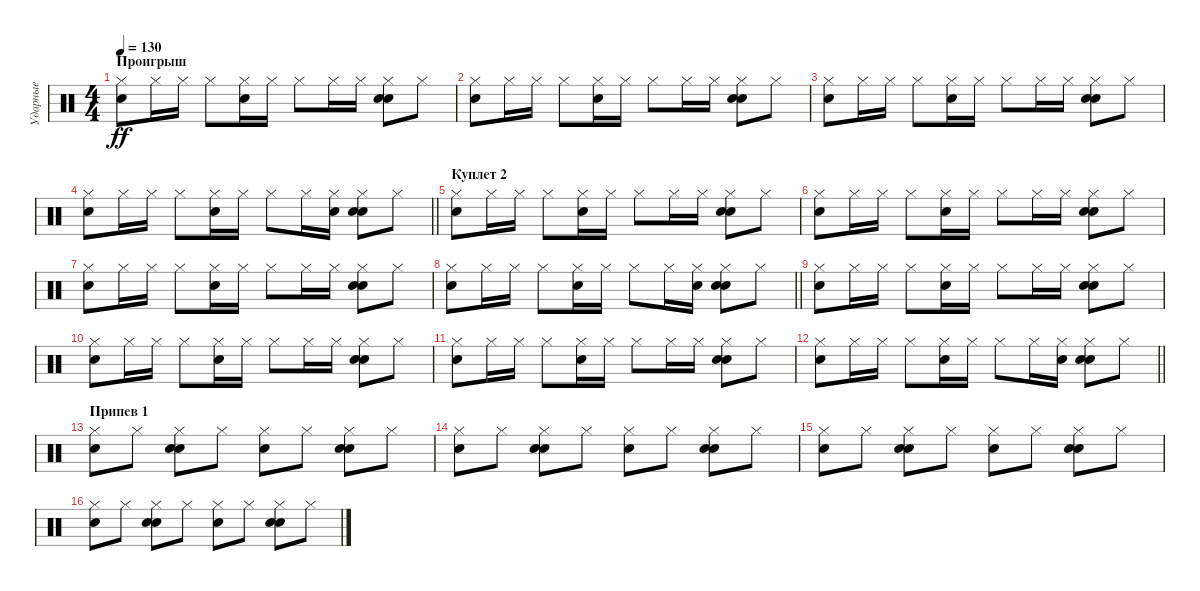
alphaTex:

\track ("Ударные" "Ударные") {instrument percussion}
\staff {score}
\articulation defaults
\ts (4 4)
\section ("" "Проигрыш")
\tempo 130
\clef neutral
\ks c
("Hi-Hat (closed)" "Snare (hit) 2").8{dy ff} "Hi-Hat (closed)".16 "Hi-Hat (closed)".16 "Hi-Hat (closed)".8 ("Hi-Hat (closed)" "Snare (hit) 2").16 "Hi-Hat (closed)".16 "Hi-Hat (closed)".8 "Hi-Hat (closed)".16 "Hi-Hat (closed)".16 ("Hi-Hat (closed)" "Snare (hit) 2" "Electric Snare (hit)").8 "Hi-Hat (closed)".8 |
("Hi-Hat (closed)" "Snare (hit) 2").8 "Hi-Hat (closed)".16 "Hi-Hat (closed)".16 "Hi-Hat (closed)".8 ("Hi-Hat (closed)" "Snare (hit) 2").16 "Hi-Hat (closed)".16 "Hi-Hat (closed)".8 "Hi-Hat (closed)".16 "Hi-Hat (closed)".16 ("Hi-Hat (closed)" "Snare (hit) 2" "Electric Snare (hit)").8 "Hi-Hat (closed)".8 |
("Hi-Hat (closed)" "Snare (hit) 2").8 "Hi-Hat (closed)".16 "Hi-Hat (closed)".16 "Hi-Hat (closed)".8 ("Hi-Hat (closed)" "Snare (hit) 2").16 "Hi-Hat (closed)".16 "Hi-Hat (closed)".8 "Hi-Hat (closed)".16 "Hi-Hat (closed)".16 ("Hi-Hat (closed)" "Snare (hit) 2" "Electric Snare (hit)").8 "Hi-Hat (closed)".8 |
\barLineRight lightlight
("Hi-Hat (closed)" "Snare (hit) 2").8 "Hi-Hat (closed)".16 "Hi-Hat (closed)".16 "Hi-Hat (closed)".8 ("Hi-Hat (closed)" "Snare (hit) 2").16 "Hi-Hat (closed)".16 "Hi-Hat (closed)".8 "Hi-Hat (closed)".16 ("Hi-Hat (closed)" "Electric Snare (hit)").16 ("Hi-Hat (closed)" "Snare (hit) 2" "Electric Snare (hit)").8 "Hi-Hat (closed)".8 |
\section ("" "Куплет 2")
("Hi-Hat (closed)" "Snare (hit) 2").8 "Hi-Hat (closed)".16 "Hi-Hat (closed)".16 "Hi-Hat (closed)".8 ("Hi-Hat (closed)" "Snare (hit) 2").16 "Hi-Hat (closed)".16 "Hi-Hat (closed)".8 "Hi-Hat (closed)".16 "Hi-Hat (closed)".16 ("Hi-Hat (closed)" "Snare (hit) 2" "Electric Snare (hit)").8 "Hi-Hat (closed)".8 |
("Hi-Hat (closed)" "Snare (hit) 2").8 "Hi-Hat (closed)".16 "Hi-Hat (closed)".16 "Hi-Hat (closed)".8 ("Hi-Hat (closed)" "Snare (hit) 2").16 "Hi-Hat (closed)".16 "Hi-Hat (closed)".8 "Hi-Hat (closed)".16 "Hi-Hat (closed)".16 ("Hi-Hat (closed)" "Snare (hit) 2" "Electric Snare (hit)").8 "Hi-Hat (closed)".8 |
("Hi-Hat (closed)" "Snare (hit) 2").8 "Hi-Hat (closed)".16 "Hi-Hat (closed)".16 "Hi-Hat (closed)".8 ("Hi-Hat (closed)" "Snare (hit) 2").16 "Hi-Hat (closed)".16 "Hi-Hat (closed)".8 "Hi-Hat (closed)".16 "Hi-Hat (closed)".16 ("Hi-Hat (closed)" "Snare (hit) 2" "Electric Snare (hit)").8 "Hi-Hat (closed)".8 |
\barLineRight lightlight
("Hi-Hat (closed)" "Snare (hit) 2").8 "Hi-Hat (closed)".16 "Hi-Hat (closed)".16 "Hi-Hat (closed)".8 ("Hi-Hat (closed)" "Snare (hit) 2").16 "Hi-Hat (closed)".16 "Hi-Hat (closed)".8 "Hi-Hat (closed)".16 ("Hi-Hat (closed)" "Electric Snare (hit)").16 ("Hi-Hat (closed)" "Snare (hit) 2" "Electric Snare (hit)").8 "Hi-Hat (closed)".8 |
("Hi-Hat (closed)" "Snare (hit) 2").8 "Hi-Hat (closed)".16 "Hi-Hat (closed)".16 "Hi-Hat (closed)".8 ("Hi-Hat (closed)" "Snare (hit) 2").16 "Hi-Hat (closed)".16 "Hi-Hat (closed)".8 "Hi-Hat (closed)".16 "Hi-Hat (closed)".16 ("Hi-Hat (closed)" "Snare (hit) 2" "Electric Snare (hit)").8 "Hi-Hat (closed)".8 |
("Hi-Hat (closed)" "Snare (hit) 2").8 "Hi-Hat (closed)".16 "Hi-Hat (closed)".16 "Hi-Hat (closed)".8 ("Hi-Hat (closed)" "Snare (hit) 2").16 "Hi-Hat (closed)".16 "Hi-Hat (closed)".8 "Hi-Hat (closed)".16 "Hi-Hat (closed)".16 ("Hi-Hat (closed)" "Snare (hit) 2" "Electric Snare (hit)").8 "Hi-Hat (closed)".8 |
("Hi-Hat (closed)" "Snare (hit) 2").8 "Hi-Hat (closed)".16 "Hi-Hat (closed)".16 "Hi-Hat (closed)".8 ("Hi-Hat (closed)" "Snare (hit) 2").16 "Hi-Hat (closed)".16 "Hi-Hat (closed)".8 "Hi-Hat (closed)".16 "Hi-Hat (closed)".16 ("Hi-Hat (closed)" "Snare (hit) 2" "Electric Snare (hit)").8 "Hi-Hat (closed)".8 |
\barLineRight lightlight
("Hi-Hat (closed)" "Snare (hit) 2").8 "Hi-Hat (closed)".16 "Hi-Hat (closed)".16 "Hi-Hat (closed)".8 ("Hi-Hat (closed)" "Snare (hit) 2").16 "Hi-Hat (closed)".16 "Hi-Hat (closed)".8 "Hi-Hat (closed)".16 ("Hi-Hat (closed)" "Electric Snare (hit)").16 ("Hi-Hat (closed)" "Snare (hit) 2" "Electric Snare (hit)").8 "Hi-Hat (closed)".8 |
\section ("" "Припев 1")
("Hi-Hat (closed)" "Snare (hit) 2").8 "Hi-Hat (closed)".8 ("Hi-Hat (closed)" "Snare (hit) 2" "Electric Snare (hit)").8 "Hi-Hat (closed)".8 ("Hi-Hat (closed)" "Snare (hit) 2").8 "Hi-Hat (closed)".8 ("Hi-Hat (closed)" "Snare (hit) 2" "Electric Snare (hit)").8 "Hi-Hat (closed)".8 |
("Hi-Hat (closed)" "Snare (hit) 2").8 "Hi-Hat (closed)".8 ("Hi-Hat (closed)" "Snare (hit) 2" "Electric Snare (hit)").8 "Hi-Hat (closed)".8 ("Hi-Hat (closed)" "Snare (hit) 2").8 "Hi-Hat (closed)".8 ("Hi-Hat (closed)" "Snare (hit) 2" "Electric Snare (hit)").8 "Hi-Hat (closed)".8 |
("Hi-Hat (closed)" "Snare (hit) 2").8 "Hi-Hat (closed)".8 ("Hi-Hat (closed)" "Snare (hit) 2" "Electric Snare (hit)").8 "Hi-Hat (closed)".8 ("Hi-Hat (closed)" "Snare (hit) 2").8 "Hi-Hat (closed)".8 ("Hi-Hat (closed)" "Snare (hit) 2" "Electric Snare (hit)").8 "Hi-Hat (closed)".8 |
("Hi-Hat (closed)" "Snare (hit) 2").8 "Hi-Hat (closed)".8 ("Hi-Hat (closed)" "Snare (hit) 2" "Electric Snare (hit)").8 "Hi-Hat (closed)".8 ("Hi-Hat (closed)" "Snare (hit) 2").8 "Hi-Hat (closed)".8 ("Hi-Hat (closed)" "Snare (hit) 2" "Electric Snare (hit)").8 "Hi-Hat (closed)".8
